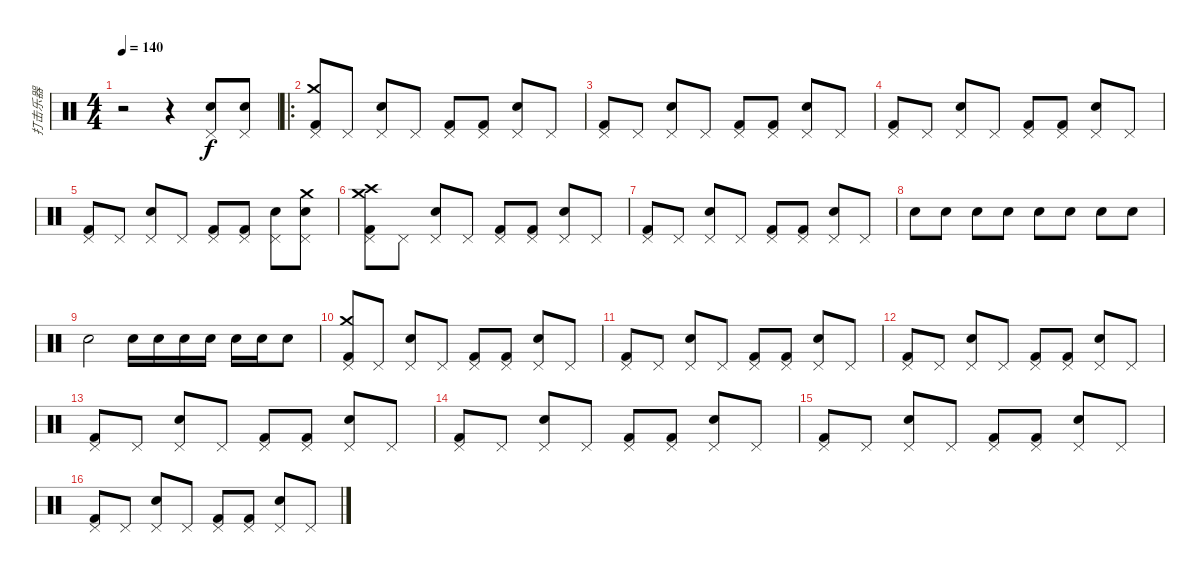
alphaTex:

\track ("打击乐器" "打击乐器") {instrument percussion}
\staff {score}
\articulation defaults
\ts (4 4)
\tempo 140
\clef neutral
\ks c
r.2{dy f} r.4 ("Electric Snare (hit)" "Pedal Hi-Hat (hit)").8 ("Snare (hit) 2" "Pedal Hi-Hat (hit)").8 |
\ro
("Crash medium (hit)" "Pedal Hi-Hat (hit)" "Kick (hit) 2").8 "Pedal Hi-Hat (hit)".8 ("Pedal Hi-Hat (hit)" "Snare (hit) 2").8 "Pedal Hi-Hat (hit)".8 ("Pedal Hi-Hat (hit)" "Kick (hit) 2").8 ("Pedal Hi-Hat (hit)" "Kick (hit) 2").8 ("Pedal Hi-Hat (hit)" "Snare (hit) 2").8 "Pedal Hi-Hat (hit)".8 |
("Pedal Hi-Hat (hit)" "Kick (hit) 2").8 "Pedal Hi-Hat (hit)".8 ("Pedal Hi-Hat (hit)" "Snare (hit) 2").8 "Pedal Hi-Hat (hit)".8 ("Pedal Hi-Hat (hit)" "Kick (hit) 2").8 ("Pedal Hi-Hat (hit)" "Kick (hit) 2").8 ("Pedal Hi-Hat (hit)" "Snare (hit) 2").8 "Pedal Hi-Hat (hit)".8 |
("Pedal Hi-Hat (hit)" "Kick (hit) 2").8 "Pedal Hi-Hat (hit)".8 ("Pedal Hi-Hat (hit)" "Snare (hit) 2").8 "Pedal Hi-Hat (hit)".8 ("Pedal Hi-Hat (hit)" "Kick (hit) 2").8 ("Pedal Hi-Hat (hit)" "Kick (hit) 2").8 ("Pedal Hi-Hat (hit)" "Snare (hit) 2").8 "Pedal Hi-Hat (hit)".8 |
("Pedal Hi-Hat (hit)" "Kick (hit) 2").8 "Pedal Hi-Hat (hit)".8 ("Pedal Hi-Hat (hit)" "Snare (hit) 2").8 "Pedal Hi-Hat (hit)".8 ("Pedal Hi-Hat (hit)" "Kick (hit) 2").8 ("Pedal Hi-Hat (hit)" "Kick (hit) 2").8 ("Pedal Hi-Hat (hit)" "Snare (hit) 2").8 ("Crash medium (hit)" "Pedal Hi-Hat (hit)" "Snare (hit) 2").8 |
("Crash high (hit)" "Crash medium (hit)" "Pedal Hi-Hat (hit)" "Kick (hit) 2").8 "Pedal Hi-Hat (hit)".8 ("Pedal Hi-Hat (hit)" "Snare (hit) 2").8 "Pedal Hi-Hat (hit)".8 ("Pedal Hi-Hat (hit)" "Kick (hit) 2").8 ("Pedal Hi-Hat (hit)" "Kick (hit) 2").8 ("Pedal Hi-Hat (hit)" "Snare (hit) 2").8 "Pedal Hi-Hat (hit)".8 |
("Pedal Hi-Hat (hit)" "Kick (hit) 2").8 "Pedal Hi-Hat (hit)".8 ("Pedal Hi-Hat (hit)" "Snare (hit) 2").8 "Pedal Hi-Hat (hit)".8 ("Pedal Hi-Hat (hit)" "Kick (hit) 2").8 ("Pedal Hi-Hat (hit)" "Kick (hit) 2").8 ("Pedal Hi-Hat (hit)" "Snare (hit) 2").8 "Pedal Hi-Hat (hit)".8 |
"Electric Snare (hit)".8 "Snare (hit) 2".8 "Electric Snare (hit)".8 "Snare (hit) 2".8 "Electric Snare (hit)".8 "Snare (hit) 2".8 "Electric Snare (hit)".8 "Snare (hit) 2".8 |
"Snare (hit) 2".2 "Electric Snare (hit)".16 "Electric Snare (hit)".16 "Electric Snare (hit)".16 "Electric Snare (hit)".16 "Electric Snare (hit)".16 "Electric Snare (hit)".16 "Electric Snare (hit)".8 |
("Crash medium (hit)" "Pedal Hi-Hat (hit)" "Kick (hit) 2").8 "Pedal Hi-Hat (hit)".8 ("Snare (hit) 2" "Pedal Hi-Hat (hit)").8 "Pedal Hi-Hat (hit)".8 ("Pedal Hi-Hat (hit)" "Kick (hit) 2").8 ("Pedal Hi-Hat (hit)" "Kick (hit) 2").8 ("Snare (hit) 2" "Pedal Hi-Hat (hit)").8 "Pedal Hi-Hat (hit)".8 |
("Pedal Hi-Hat (hit)" "Kick (hit) 2").8 "Pedal Hi-Hat (hit)".8 ("Snare (hit) 2" "Pedal Hi-Hat (hit)").8 "Pedal Hi-Hat (hit)".8 ("Pedal Hi-Hat (hit)" "Kick (hit) 2").8 ("Pedal Hi-Hat (hit)" "Kick (hit) 2").8 ("Snare (hit) 2" "Pedal Hi-Hat (hit)").8 "Pedal Hi-Hat (hit)".8 |
("Pedal Hi-Hat (hit)" "Kick (hit) 2").8 "Pedal Hi-Hat (hit)".8 ("Snare (hit) 2" "Pedal Hi-Hat (hit)").8 "Pedal Hi-Hat (hit)".8 ("Pedal Hi-Hat (hit)" "Kick (hit) 2").8 ("Pedal Hi-Hat (hit)" "Kick (hit) 2").8 ("Snare (hit) 2" "Pedal Hi-Hat (hit)").8 "Pedal Hi-Hat (hit)".8 |
("Pedal Hi-Hat (hit)" "Kick (hit) 2").8 "Pedal Hi-Hat (hit)".8 ("Snare (hit) 2" "Pedal Hi-Hat (hit)").8 "Pedal Hi-Hat (hit)".8 ("Pedal Hi-Hat (hit)" "Kick (hit) 2").8 ("Pedal Hi-Hat (hit)" "Kick (hit) 2").8 ("Snare (hit) 2" "Pedal Hi-Hat (hit)").8 "Pedal Hi-Hat (hit)".8 |
("Pedal Hi-Hat (hit)" "Kick (hit) 2").8 "Pedal Hi-Hat (hit)".8 ("Snare (hit) 2" "Pedal Hi-Hat (hit)").8 "Pedal Hi-Hat (hit)".8 ("Pedal Hi-Hat (hit)" "Kick (hit) 2").8 ("Pedal Hi-Hat (hit)" "Kick (hit) 2").8 ("Snare (hit) 2" "Pedal Hi-Hat (hit)").8 "Pedal Hi-Hat (hit)".8 |
("Pedal Hi-Hat (hit)" "Kick (hit) 2").8 "Pedal Hi-Hat (hit)".8 ("Snare (hit) 2" "Pedal Hi-Hat (hit)").8 "Pedal Hi-Hat (hit)".8 ("Pedal Hi-Hat (hit)" "Kick (hit) 2").8 ("Pedal Hi-Hat (hit)" "Kick (hit) 2").8 ("Snare (hit) 2" "Pedal Hi-Hat (hit)").8 "Pedal Hi-Hat (hit)".8 |
("Pedal Hi-Hat (hit)" "Kick (hit) 2").8 "Pedal Hi-Hat (hit)".8 ("Snare (hit) 2" "Pedal Hi-Hat (hit)").8 "Pedal Hi-Hat (hit)".8 ("Pedal Hi-Hat (hit)" "Kick (hit) 2").8 ("Pedal Hi-Hat (hit)" "Kick (hit) 2").8 ("Snare (hit) 2" "Pedal Hi-Hat (hit)").8 "Pedal Hi-Hat (hit)".8
